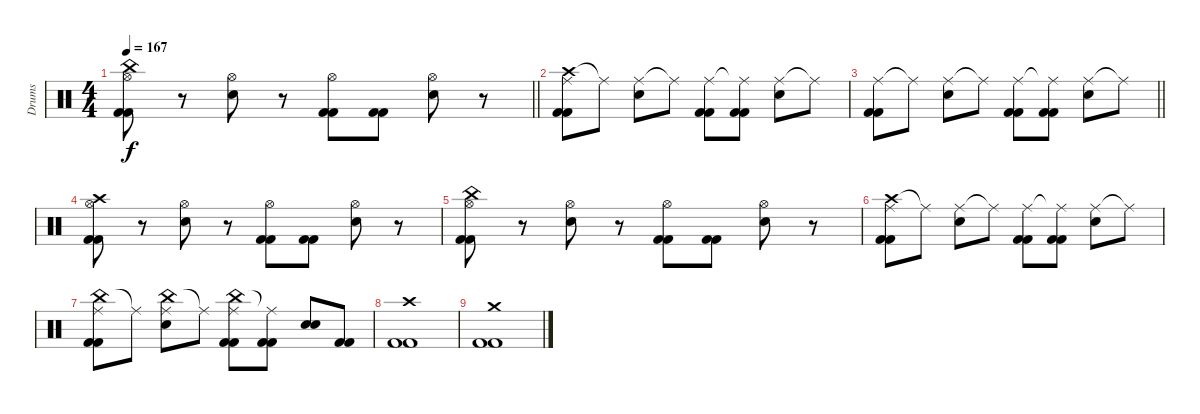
\track ("Drums" "Drums") {instrument percussion}
\staff {score}
\articulation defaults
\ts (4 4)
\tempo 167
\clef neutral
\barLineRight lightlight
\ks c
("China (hit)" "Hi-Hat (open)" "Kick (hit) 2" "Kick (hit) 2").8{dy f} r.8 ("Hi-Hat (open)" "Electric Snare (hit)").8 r.8 ("Hi-Hat (open)" "Kick (hit) 2" "Kick (hit) 2").8 ("Kick (hit) 2" "Kick (hit) 2").8 ("Hi-Hat (open)" "Electric Snare (hit)").8 r.8 |
("Crash high (hit)" "Ride (middle)" "Kick (hit) 2" "Kick (hit) 2").8 "Ride (middle)"{t}.8 ("Ride (middle)" "Electric Snare (hit)").8 "Ride (middle)"{t}.8 ("Ride (middle)" "Kick (hit) 2" "Kick (hit) 2").8 ("Ride (middle)"{t} "Kick (hit) 2" "Kick (hit) 2").8 ("Ride (middle)" "Electric Snare (hit)").8 "Ride (middle)"{t}.8 |
\barLineRight lightlight
("Ride (middle)" "Kick (hit) 2" "Kick (hit) 2").8 "Ride (middle)"{t}.8 ("Ride (middle)" "Electric Snare (hit)").8 "Ride (middle)"{t}.8 ("Ride (middle)" "Kick (hit) 2" "Kick (hit) 2").8 ("Ride (middle)"{t} "Kick (hit) 2" "Kick (hit) 2").8 ("Ride (middle)" "Electric Snare (hit)").8 "Ride (middle)"{t}.8 |
("Crash high (hit)" "Hi-Hat (open)" "Kick (hit) 2" "Kick (hit) 2").8 r.8 ("Hi-Hat (open)" "Electric Snare (hit)").8 r.8 ("Hi-Hat (open)" "Kick (hit) 2" "Kick (hit) 2").8 ("Kick (hit) 2" "Kick (hit) 2").8 ("Hi-Hat (open)" "Electric Snare (hit)").8 r.8 |
("China (hit)" "Hi-Hat (open)" "Kick (hit) 2" "Kick (hit) 2").8 r.8 ("Hi-Hat (open)" "Electric Snare (hit)").8 r.8 ("Hi-Hat (open)" "Kick (hit) 2" "Kick (hit) 2").8 ("Kick (hit) 2" "Kick (hit) 2").8 ("Hi-Hat (open)" "Electric Snare (hit)").8 r.8 |
("Crash high (hit)" "Ride (middle)" "Kick (hit) 2" "Kick (hit) 2").8 "Ride (middle)"{t}.8 ("Ride (middle)" "Electric Snare (hit)").8 "Ride (middle)"{t}.8 ("Ride (middle)" "Kick (hit) 2" "Kick (hit) 2").8 ("Ride (middle)"{t} "Kick (hit) 2" "Kick (hit) 2").8 ("Ride (middle)" "Electric Snare (hit)").8 "Ride (middle)"{t}.8 |
("China (hit)" "Ride (middle)" "Kick (hit) 2" "Kick (hit) 2").8 "Ride (middle)"{t}.8 ("China (hit)" "Ride (middle)" "Electric Snare (hit)").8 "Ride (middle)"{t}.8 ("China (hit)" "Ride (middle)" "Kick (hit) 2" "Kick (hit) 2").8 ("Ride (middle)"{t} "Kick (hit) 2" "Kick (hit) 2").8 ("Electric Snare (hit)" "Electric Snare (hit)").8{bd 120} ("Kick (hit) 2" "Kick (hit) 2").8 |
("Crash high (hit)" "Kick (hit) 2" "Kick (hit) 2").1 |
("Crash medium (hit)" "Kick (hit) 2" "Kick (hit) 2").1
